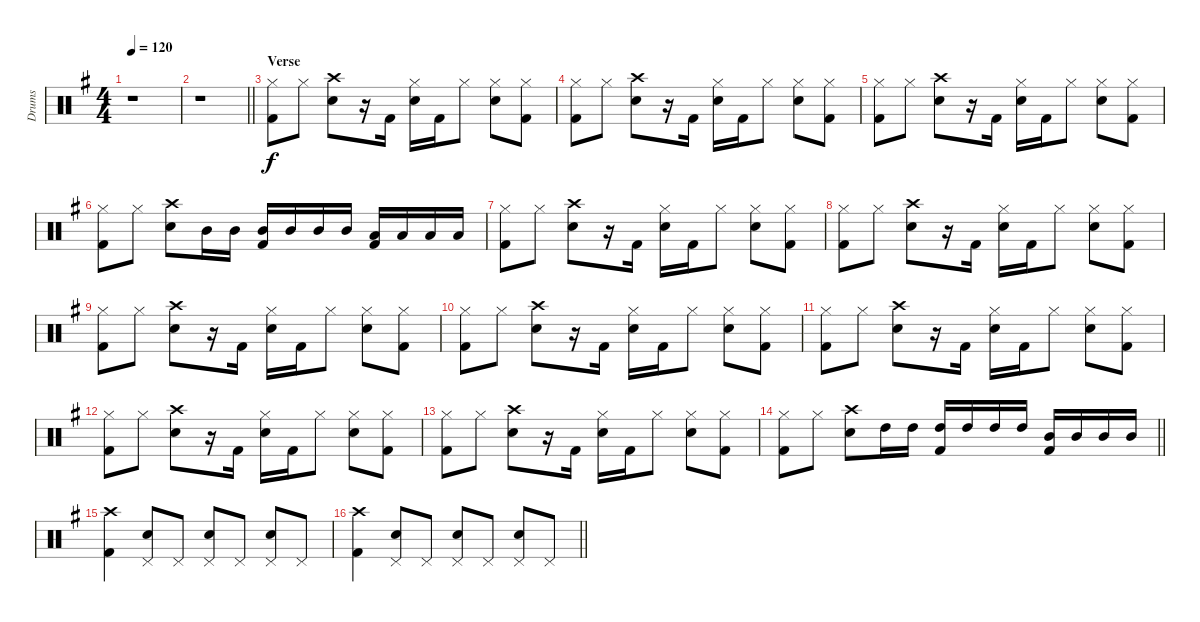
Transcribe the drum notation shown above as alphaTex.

\track ("Drums" "Drums") {instrument percussion}
\staff {score}
\articulation defaults
\ts (4 4)
\tempo 120
\clef neutral
\ks g
r.1{dy f} |
\barLineRight lightlight
r.1 |
\section ("" "Verse")
("Hi-Hat (closed)" "Kick (hit) 2").8 "Hi-Hat (closed)".8 ("Crash high (hit)" "Electric Snare (hit)").8 r.16 "Kick (hit) 2".16 ("Hi-Hat (closed)" "Electric Snare (hit)").16 "Kick (hit) 2".16 "Hi-Hat (closed)".8 ("Hi-Hat (closed)" "Electric Snare (hit)").8 ("Hi-Hat (closed)" "Kick (hit) 2").8 |
("Hi-Hat (closed)" "Kick (hit) 2").8 "Hi-Hat (closed)".8 ("Crash high (hit)" "Electric Snare (hit)").8 r.16 "Kick (hit) 2".16 ("Hi-Hat (closed)" "Electric Snare (hit)").16 "Kick (hit) 2".16 "Hi-Hat (closed)".8 ("Hi-Hat (closed)" "Electric Snare (hit)").8 ("Hi-Hat (closed)" "Kick (hit) 2").8 |
("Hi-Hat (closed)" "Kick (hit) 2").8 "Hi-Hat (closed)".8 ("Crash high (hit)" "Electric Snare (hit)").8 r.16 "Kick (hit) 2".16 ("Hi-Hat (closed)" "Electric Snare (hit)").16 "Kick (hit) 2".16 "Hi-Hat (closed)".8 ("Hi-Hat (closed)" "Electric Snare (hit)").8 ("Hi-Hat (closed)" "Kick (hit) 2").8 |
("Hi-Hat (closed)" "Kick (hit) 2").8 "Hi-Hat (closed)".8 ("Crash high (hit)" "Electric Snare (hit)").8 "Mid Tom (hit)".16 "Mid Tom (hit)".16 ("Mid Tom (hit)" "Kick (hit) 2").16 "Mid Tom (hit)".16 "Mid Tom (hit)".16 "Mid Tom (hit)".16 ("Low Tom (hit)" "Kick (hit) 2").16 "Low Tom (hit)".16 "Low Tom (hit)".16 "Low Tom (hit)".16 |
("Hi-Hat (closed)" "Kick (hit) 2").8 "Hi-Hat (closed)".8 ("Crash high (hit)" "Electric Snare (hit)").8 r.16 "Kick (hit) 2".16 ("Hi-Hat (closed)" "Electric Snare (hit)").16 "Kick (hit) 2".16 "Hi-Hat (closed)".8 ("Hi-Hat (closed)" "Electric Snare (hit)").8 ("Hi-Hat (closed)" "Kick (hit) 2").8 |
("Hi-Hat (closed)" "Kick (hit) 2").8 "Hi-Hat (closed)".8 ("Crash high (hit)" "Electric Snare (hit)").8 r.16 "Kick (hit) 2".16 ("Hi-Hat (closed)" "Electric Snare (hit)").16 "Kick (hit) 2".16 "Hi-Hat (closed)".8 ("Hi-Hat (closed)" "Electric Snare (hit)").8 ("Hi-Hat (closed)" "Kick (hit) 2").8 |
("Hi-Hat (closed)" "Kick (hit) 2").8 "Hi-Hat (closed)".8 ("Crash high (hit)" "Electric Snare (hit)").8 r.16 "Kick (hit) 2".16 ("Hi-Hat (closed)" "Electric Snare (hit)").16 "Kick (hit) 2".16 "Hi-Hat (closed)".8 ("Hi-Hat (closed)" "Electric Snare (hit)").8 ("Hi-Hat (closed)" "Kick (hit) 2").8 |
("Hi-Hat (closed)" "Kick (hit) 2").8 "Hi-Hat (closed)".8 ("Crash high (hit)" "Electric Snare (hit)").8 r.16 "Kick (hit) 2".16 ("Hi-Hat (closed)" "Electric Snare (hit)").16 "Kick (hit) 2".16 "Hi-Hat (closed)".8 ("Hi-Hat (closed)" "Electric Snare (hit)").8 ("Hi-Hat (closed)" "Kick (hit) 2").8 |
("Hi-Hat (closed)" "Kick (hit) 2").8 "Hi-Hat (closed)".8 ("Crash high (hit)" "Electric Snare (hit)").8 r.16 "Kick (hit) 2".16 ("Hi-Hat (closed)" "Electric Snare (hit)").16 "Kick (hit) 2".16 "Hi-Hat (closed)".8 ("Hi-Hat (closed)" "Electric Snare (hit)").8 ("Hi-Hat (closed)" "Kick (hit) 2").8 |
("Hi-Hat (closed)" "Kick (hit) 2").8 "Hi-Hat (closed)".8 ("Crash high (hit)" "Electric Snare (hit)").8 r.16 "Kick (hit) 2".16 ("Hi-Hat (closed)" "Electric Snare (hit)").16 "Kick (hit) 2".16 "Hi-Hat (closed)".8 ("Hi-Hat (closed)" "Electric Snare (hit)").8 ("Hi-Hat (closed)" "Kick (hit) 2").8 |
("Hi-Hat (closed)" "Kick (hit) 2").8 "Hi-Hat (closed)".8 ("Crash high (hit)" "Electric Snare (hit)").8 r.16 "Kick (hit) 2".16 ("Hi-Hat (closed)" "Electric Snare (hit)").16 "Kick (hit) 2".16 "Hi-Hat (closed)".8 ("Hi-Hat (closed)" "Electric Snare (hit)").8 ("Hi-Hat (closed)" "Kick (hit) 2").8 |
\barLineRight lightlight
("Hi-Hat (closed)" "Kick (hit) 2").8 "Hi-Hat (closed)".8 ("Crash high (hit)" "Electric Snare (hit)").8 "High Tom (hit)".16 "High Tom (hit)".16 ("High Tom (hit)" "Kick (hit) 2").16 "High Tom (hit)".16 "High Tom (hit)".16 "High Tom (hit)".16 ("Mid Tom (hit)" "Kick (hit) 2").16 "Mid Tom (hit)".16 "Mid Tom (hit)".16 "Mid Tom (hit)".16 |
("Crash high (hit)" "Kick (hit) 2").4 ("Pedal Hi-Hat (hit)" "Electric Snare (hit)").8 "Pedal Hi-Hat (hit)".8 ("Pedal Hi-Hat (hit)" "Electric Snare (hit)").8 "Pedal Hi-Hat (hit)".8 ("Pedal Hi-Hat (hit)" "Electric Snare (hit)").8 "Pedal Hi-Hat (hit)".8 |
\barLineRight lightlight
("Crash high (hit)" "Kick (hit) 2").4 ("Pedal Hi-Hat (hit)" "Electric Snare (hit)").8 "Pedal Hi-Hat (hit)".8 ("Pedal Hi-Hat (hit)" "Electric Snare (hit)").8 "Pedal Hi-Hat (hit)".8 ("Pedal Hi-Hat (hit)" "Electric Snare (hit)").8 "Pedal Hi-Hat (hit)".8
